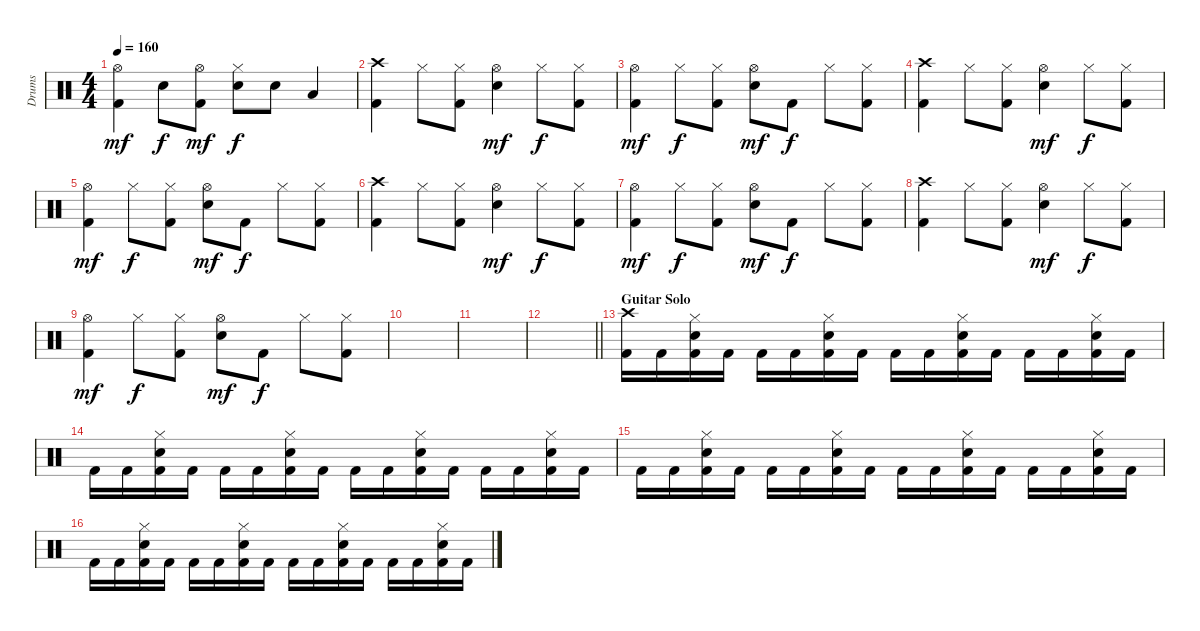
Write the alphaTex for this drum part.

\track ("Drums" "Drums") {instrument percussion}
\staff {score}
\articulation defaults
\ts (4 4)
\tempo 160
\clef neutral
\ks c
("Kick (hit) 2" "Hi-Hat (open)").4{dy mf} "Electric Snare (hit)".8{dy f} ("Kick (hit) 2" "Hi-Hat (open)").8{dy mf} ("Hi-Hat (closed)" "Electric Snare (hit)").8{dy f} "Electric Snare (hit)".8 "Low Tom (hit)".4 |
("Kick (hit) 2" "Crash high (hit)").4 "Hi-Hat (closed)".8 ("Kick (hit) 2" "Hi-Hat (closed)").8 ("Hi-Hat (open)" "Electric Snare (hit)").4{dy mf} "Hi-Hat (closed)".8{dy f} ("Kick (hit) 2" "Hi-Hat (closed)").8 |
("Kick (hit) 2" "Hi-Hat (open)").4{dy mf} "Hi-Hat (closed)".8{dy f} ("Kick (hit) 2" "Hi-Hat (closed)").8 ("Hi-Hat (open)" "Electric Snare (hit)").8{dy mf} "Kick (hit) 2".8{dy f} "Hi-Hat (closed)".8 ("Kick (hit) 2" "Hi-Hat (closed)").8 |
("Kick (hit) 2" "Crash high (hit)").4 "Hi-Hat (closed)".8 ("Kick (hit) 2" "Hi-Hat (closed)").8 ("Hi-Hat (open)" "Electric Snare (hit)").4{dy mf} "Hi-Hat (closed)".8{dy f} ("Kick (hit) 2" "Hi-Hat (closed)").8 |
("Kick (hit) 2" "Hi-Hat (open)").4{dy mf} "Hi-Hat (closed)".8{dy f} ("Kick (hit) 2" "Hi-Hat (closed)").8 ("Hi-Hat (open)" "Electric Snare (hit)").8{dy mf} "Kick (hit) 2".8{dy f} "Hi-Hat (closed)".8 ("Kick (hit) 2" "Hi-Hat (closed)").8 |
("Kick (hit) 2" "Crash high (hit)").4 "Hi-Hat (closed)".8 ("Kick (hit) 2" "Hi-Hat (closed)").8 ("Hi-Hat (open)" "Electric Snare (hit)").4{dy mf} "Hi-Hat (closed)".8{dy f} ("Kick (hit) 2" "Hi-Hat (closed)").8 |
("Kick (hit) 2" "Hi-Hat (open)").4{dy mf} "Hi-Hat (closed)".8{dy f} ("Kick (hit) 2" "Hi-Hat (closed)").8 ("Hi-Hat (open)" "Electric Snare (hit)").8{dy mf} "Kick (hit) 2".8{dy f} "Hi-Hat (closed)".8 ("Kick (hit) 2" "Hi-Hat (closed)").8 |
("Kick (hit) 2" "Crash high (hit)").4 "Hi-Hat (closed)".8 ("Kick (hit) 2" "Hi-Hat (closed)").8 ("Hi-Hat (open)" "Electric Snare (hit)").4{dy mf} "Hi-Hat (closed)".8{dy f} ("Kick (hit) 2" "Hi-Hat (closed)").8 |
("Kick (hit) 2" "Hi-Hat (open)").4{dy mf} "Hi-Hat (closed)".8{dy f} ("Kick (hit) 2" "Hi-Hat (closed)").8 ("Hi-Hat (open)" "Electric Snare (hit)").8{dy mf} "Kick (hit) 2".8{dy f} "Hi-Hat (closed)".8 ("Kick (hit) 2" "Hi-Hat (closed)").8 |
|
|
\barLineRight lightlight
|
\section ("" "Guitar Solo")
("Kick (hit) 2" "Crash high (hit)").16 "Kick (hit) 2".16 ("Kick (hit) 2" "Hi-Hat (closed)" "Electric Snare (hit)").16 "Kick (hit) 2".16 "Kick (hit) 2".16 "Kick (hit) 2".16 ("Kick (hit) 2" "Hi-Hat (closed)" "Electric Snare (hit)").16 "Kick (hit) 2".16 "Kick (hit) 2".16 "Kick (hit) 2".16 ("Kick (hit) 2" "Hi-Hat (closed)" "Electric Snare (hit)").16 "Kick (hit) 2".16 "Kick (hit) 2".16 "Kick (hit) 2".16 ("Kick (hit) 2" "Hi-Hat (closed)" "Electric Snare (hit)").16 "Kick (hit) 2".16 |
"Kick (hit) 2".16 "Kick (hit) 2".16 ("Kick (hit) 2" "Hi-Hat (closed)" "Electric Snare (hit)").16 "Kick (hit) 2".16 "Kick (hit) 2".16 "Kick (hit) 2".16 ("Kick (hit) 2" "Hi-Hat (closed)" "Electric Snare (hit)").16 "Kick (hit) 2".16 "Kick (hit) 2".16 "Kick (hit) 2".16 ("Kick (hit) 2" "Hi-Hat (closed)" "Electric Snare (hit)").16 "Kick (hit) 2".16 "Kick (hit) 2".16 "Kick (hit) 2".16 ("Kick (hit) 2" "Hi-Hat (closed)" "Electric Snare (hit)").16 "Kick (hit) 2".16 |
"Kick (hit) 2".16 "Kick (hit) 2".16 ("Kick (hit) 2" "Hi-Hat (closed)" "Electric Snare (hit)").16 "Kick (hit) 2".16 "Kick (hit) 2".16 "Kick (hit) 2".16 ("Kick (hit) 2" "Hi-Hat (closed)" "Electric Snare (hit)").16 "Kick (hit) 2".16 "Kick (hit) 2".16 "Kick (hit) 2".16 ("Kick (hit) 2" "Hi-Hat (closed)" "Electric Snare (hit)").16 "Kick (hit) 2".16 "Kick (hit) 2".16 "Kick (hit) 2".16 ("Kick (hit) 2" "Hi-Hat (closed)" "Electric Snare (hit)").16 "Kick (hit) 2".16 |
"Kick (hit) 2".16 "Kick (hit) 2".16 ("Kick (hit) 2" "Hi-Hat (closed)" "Electric Snare (hit)").16 "Kick (hit) 2".16 "Kick (hit) 2".16 "Kick (hit) 2".16 ("Kick (hit) 2" "Hi-Hat (closed)" "Electric Snare (hit)").16 "Kick (hit) 2".16 "Kick (hit) 2".16 "Kick (hit) 2".16 ("Kick (hit) 2" "Hi-Hat (closed)" "Electric Snare (hit)").16 "Kick (hit) 2".16 "Kick (hit) 2".16 "Kick (hit) 2".16 ("Kick (hit) 2" "Hi-Hat (closed)" "Electric Snare (hit)").16 "Kick (hit) 2".16
